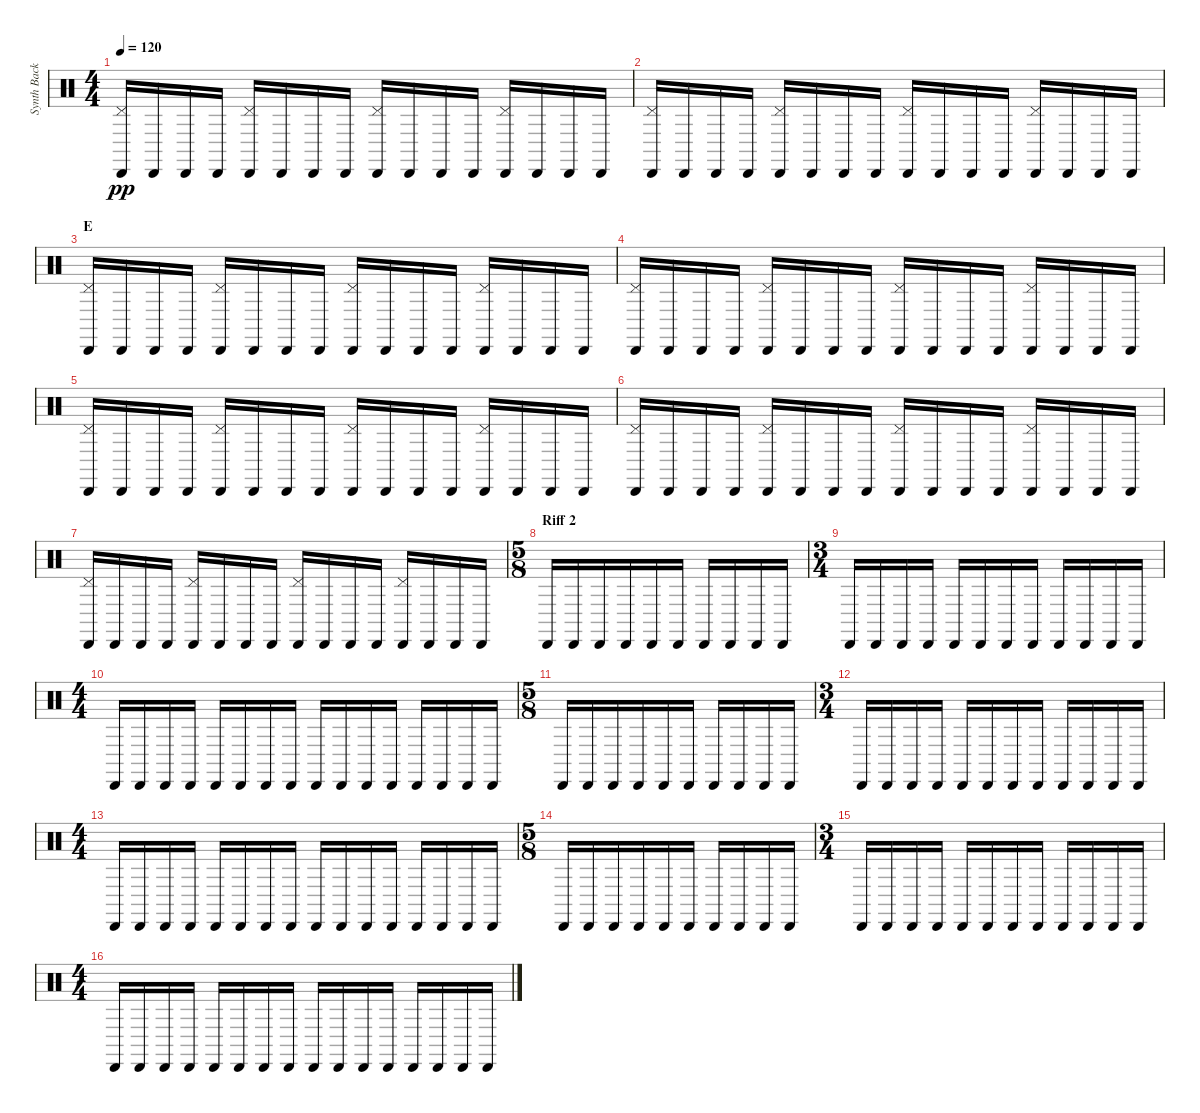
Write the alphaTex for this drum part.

\track ("Synth Background Rhythm" "Synth Back") {instrument percussion}
\staff {score}
\articulation defaults
\ts (4 4)
\tempo 120
\clef neutral
\ks c
("Pedal Hi-Hat (hit)" "Cabasa (hit)").16{dy pp} "Cabasa (hit)".16 "Cabasa (hit)".16 "Cabasa (hit)".16 ("Pedal Hi-Hat (hit)" "Cabasa (hit)").16 "Cabasa (hit)".16 "Cabasa (hit)".16 "Cabasa (hit)".16 ("Pedal Hi-Hat (hit)" "Cabasa (hit)").16 "Cabasa (hit)".16 "Cabasa (hit)".16 "Cabasa (hit)".16 ("Pedal Hi-Hat (hit)" "Cabasa (hit)").16 "Cabasa (hit)".16 "Cabasa (hit)".16 "Cabasa (hit)".16 |
("Pedal Hi-Hat (hit)" "Cabasa (hit)").16 "Cabasa (hit)".16 "Cabasa (hit)".16 "Cabasa (hit)".16 ("Pedal Hi-Hat (hit)" "Cabasa (hit)").16 "Cabasa (hit)".16 "Cabasa (hit)".16 "Cabasa (hit)".16 ("Pedal Hi-Hat (hit)" "Cabasa (hit)").16 "Cabasa (hit)".16 "Cabasa (hit)".16 "Cabasa (hit)".16 ("Pedal Hi-Hat (hit)" "Cabasa (hit)").16 "Cabasa (hit)".16 "Cabasa (hit)".16 "Cabasa (hit)".16 |
\section ("" "E")
("Pedal Hi-Hat (hit)" "Cabasa (hit)").16 "Cabasa (hit)".16 "Cabasa (hit)".16 "Cabasa (hit)".16 ("Pedal Hi-Hat (hit)" "Cabasa (hit)").16 "Cabasa (hit)".16 "Cabasa (hit)".16 "Cabasa (hit)".16 ("Pedal Hi-Hat (hit)" "Cabasa (hit)").16 "Cabasa (hit)".16 "Cabasa (hit)".16 "Cabasa (hit)".16 ("Pedal Hi-Hat (hit)" "Cabasa (hit)").16 "Cabasa (hit)".16 "Cabasa (hit)".16 "Cabasa (hit)".16 |
("Pedal Hi-Hat (hit)" "Cabasa (hit)").16 "Cabasa (hit)".16 "Cabasa (hit)".16 "Cabasa (hit)".16 ("Pedal Hi-Hat (hit)" "Cabasa (hit)").16 "Cabasa (hit)".16 "Cabasa (hit)".16 "Cabasa (hit)".16 ("Pedal Hi-Hat (hit)" "Cabasa (hit)").16 "Cabasa (hit)".16 "Cabasa (hit)".16 "Cabasa (hit)".16 ("Pedal Hi-Hat (hit)" "Cabasa (hit)").16 "Cabasa (hit)".16 "Cabasa (hit)".16 "Cabasa (hit)".16 |
("Pedal Hi-Hat (hit)" "Cabasa (hit)").16 "Cabasa (hit)".16 "Cabasa (hit)".16 "Cabasa (hit)".16 ("Pedal Hi-Hat (hit)" "Cabasa (hit)").16 "Cabasa (hit)".16 "Cabasa (hit)".16 "Cabasa (hit)".16 ("Pedal Hi-Hat (hit)" "Cabasa (hit)").16 "Cabasa (hit)".16 "Cabasa (hit)".16 "Cabasa (hit)".16 ("Pedal Hi-Hat (hit)" "Cabasa (hit)").16 "Cabasa (hit)".16 "Cabasa (hit)".16 "Cabasa (hit)".16 |
("Pedal Hi-Hat (hit)" "Cabasa (hit)").16 "Cabasa (hit)".16 "Cabasa (hit)".16 "Cabasa (hit)".16 ("Pedal Hi-Hat (hit)" "Cabasa (hit)").16 "Cabasa (hit)".16 "Cabasa (hit)".16 "Cabasa (hit)".16 ("Pedal Hi-Hat (hit)" "Cabasa (hit)").16 "Cabasa (hit)".16 "Cabasa (hit)".16 "Cabasa (hit)".16 ("Pedal Hi-Hat (hit)" "Cabasa (hit)").16 "Cabasa (hit)".16 "Cabasa (hit)".16 "Cabasa (hit)".16 |
("Pedal Hi-Hat (hit)" "Cabasa (hit)").16 "Cabasa (hit)".16 "Cabasa (hit)".16 "Cabasa (hit)".16 ("Pedal Hi-Hat (hit)" "Cabasa (hit)").16 "Cabasa (hit)".16 "Cabasa (hit)".16 "Cabasa (hit)".16 ("Pedal Hi-Hat (hit)" "Cabasa (hit)").16 "Cabasa (hit)".16 "Cabasa (hit)".16 "Cabasa (hit)".16 ("Pedal Hi-Hat (hit)" "Cabasa (hit)").16 "Cabasa (hit)".16 "Cabasa (hit)".16 "Cabasa (hit)".16 |
\ts (5 8)
\section ("" "Riff 2")
"Cabasa (hit)".16 "Cabasa (hit)".16 "Cabasa (hit)".16 "Cabasa (hit)".16 "Cabasa (hit)".16 "Cabasa (hit)".16 "Cabasa (hit)".16 "Cabasa (hit)".16 "Cabasa (hit)".16 "Cabasa (hit)".16 |
\ts (3 4)
"Cabasa (hit)".16 "Cabasa (hit)".16 "Cabasa (hit)".16 "Cabasa (hit)".16 "Cabasa (hit)".16 "Cabasa (hit)".16 "Cabasa (hit)".16 "Cabasa (hit)".16 "Cabasa (hit)".16 "Cabasa (hit)".16 "Cabasa (hit)".16 "Cabasa (hit)".16 |
\ts (4 4)
"Cabasa (hit)".16 "Cabasa (hit)".16 "Cabasa (hit)".16 "Cabasa (hit)".16 "Cabasa (hit)".16 "Cabasa (hit)".16 "Cabasa (hit)".16 "Cabasa (hit)".16 "Cabasa (hit)".16 "Cabasa (hit)".16 "Cabasa (hit)".16 "Cabasa (hit)".16 "Cabasa (hit)".16 "Cabasa (hit)".16 "Cabasa (hit)".16 "Cabasa (hit)".16 |
\ts (5 8)
"Cabasa (hit)".16 "Cabasa (hit)".16 "Cabasa (hit)".16 "Cabasa (hit)".16 "Cabasa (hit)".16 "Cabasa (hit)".16 "Cabasa (hit)".16 "Cabasa (hit)".16 "Cabasa (hit)".16 "Cabasa (hit)".16 |
\ts (3 4)
"Cabasa (hit)".16 "Cabasa (hit)".16 "Cabasa (hit)".16 "Cabasa (hit)".16 "Cabasa (hit)".16 "Cabasa (hit)".16 "Cabasa (hit)".16 "Cabasa (hit)".16 "Cabasa (hit)".16 "Cabasa (hit)".16 "Cabasa (hit)".16 "Cabasa (hit)".16 |
\ts (4 4)
"Cabasa (hit)".16 "Cabasa (hit)".16 "Cabasa (hit)".16 "Cabasa (hit)".16 "Cabasa (hit)".16 "Cabasa (hit)".16 "Cabasa (hit)".16 "Cabasa (hit)".16 "Cabasa (hit)".16 "Cabasa (hit)".16 "Cabasa (hit)".16 "Cabasa (hit)".16 "Cabasa (hit)".16 "Cabasa (hit)".16 "Cabasa (hit)".16 "Cabasa (hit)".16 |
\ts (5 8)
"Cabasa (hit)".16 "Cabasa (hit)".16 "Cabasa (hit)".16 "Cabasa (hit)".16 "Cabasa (hit)".16 "Cabasa (hit)".16 "Cabasa (hit)".16 "Cabasa (hit)".16 "Cabasa (hit)".16 "Cabasa (hit)".16 |
\ts (3 4)
"Cabasa (hit)".16 "Cabasa (hit)".16 "Cabasa (hit)".16 "Cabasa (hit)".16 "Cabasa (hit)".16 "Cabasa (hit)".16 "Cabasa (hit)".16 "Cabasa (hit)".16 "Cabasa (hit)".16 "Cabasa (hit)".16 "Cabasa (hit)".16 "Cabasa (hit)".16 |
\ts (4 4)
"Cabasa (hit)".16 "Cabasa (hit)".16 "Cabasa (hit)".16 "Cabasa (hit)".16 "Cabasa (hit)".16 "Cabasa (hit)".16 "Cabasa (hit)".16 "Cabasa (hit)".16 "Cabasa (hit)".16 "Cabasa (hit)".16 "Cabasa (hit)".16 "Cabasa (hit)".16 "Cabasa (hit)".16 "Cabasa (hit)".16 "Cabasa (hit)".16 "Cabasa (hit)".16
